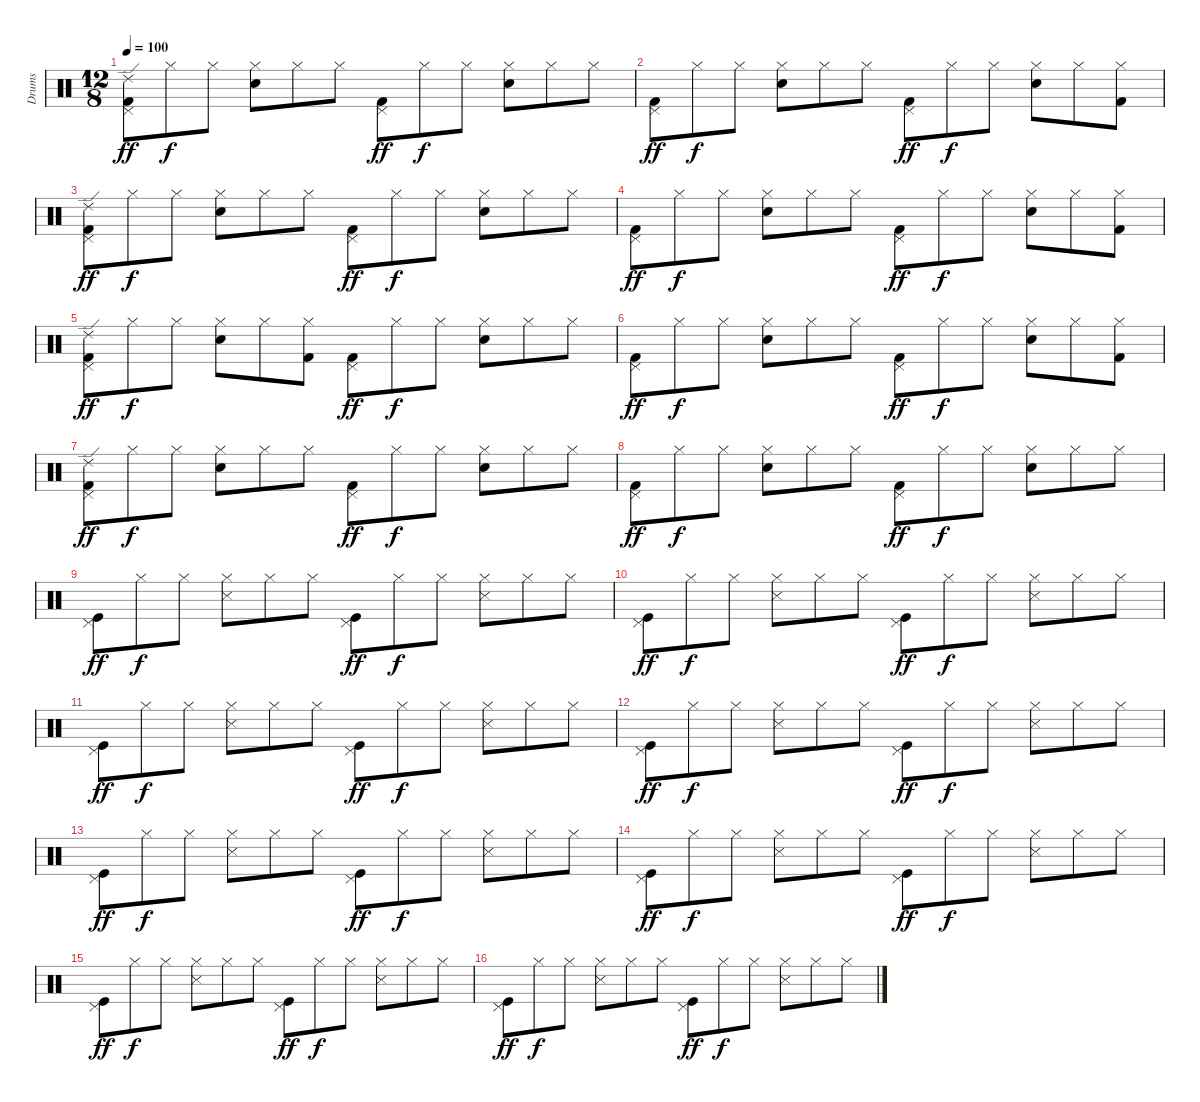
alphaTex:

\track ("Drums" "Drums") {instrument percussion}
\staff {score}
\articulation defaults
\ts (12 8)
\tempo 100
\clef neutral
\ks c
("Pedal Hi-Hat (hit)" "Ride (edge) 2" "Kick (hit) 2").8{dy ff} "Hi-Hat (closed)".8{dy f} "Hi-Hat (closed)".8 ("Hi-Hat (closed)" "Snare (hit) 2").8 "Hi-Hat (closed)".8 "Hi-Hat (closed)".8 ("Pedal Hi-Hat (hit)" "Kick (hit) 2").8{dy ff} "Hi-Hat (closed)".8{dy f} "Hi-Hat (closed)".8 ("Hi-Hat (closed)" "Snare (hit) 2").8 "Hi-Hat (closed)".8 "Hi-Hat (closed)".8 |
("Pedal Hi-Hat (hit)" "Kick (hit) 2").8{dy ff} "Hi-Hat (closed)".8{dy f} "Hi-Hat (closed)".8 ("Hi-Hat (closed)" "Snare (hit) 2").8 "Hi-Hat (closed)".8 "Hi-Hat (closed)".8 ("Pedal Hi-Hat (hit)" "Kick (hit) 2").8{dy ff} "Hi-Hat (closed)".8{dy f} "Hi-Hat (closed)".8 ("Hi-Hat (closed)" "Snare (hit) 2").8 "Hi-Hat (closed)".8 ("Hi-Hat (closed)" "Kick (hit) 2").8 |
("Pedal Hi-Hat (hit)" "Ride (edge) 2" "Kick (hit) 2").8{dy ff} "Hi-Hat (closed)".8{dy f} "Hi-Hat (closed)".8 ("Hi-Hat (closed)" "Snare (hit) 2").8 "Hi-Hat (closed)".8 "Hi-Hat (closed)".8 ("Pedal Hi-Hat (hit)" "Kick (hit) 2").8{dy ff} "Hi-Hat (closed)".8{dy f} "Hi-Hat (closed)".8 ("Hi-Hat (closed)" "Snare (hit) 2").8 "Hi-Hat (closed)".8 "Hi-Hat (closed)".8 |
("Pedal Hi-Hat (hit)" "Kick (hit) 2").8{dy ff} "Hi-Hat (closed)".8{dy f} "Hi-Hat (closed)".8 ("Hi-Hat (closed)" "Snare (hit) 2").8 "Hi-Hat (closed)".8 "Hi-Hat (closed)".8 ("Pedal Hi-Hat (hit)" "Kick (hit) 2").8{dy ff} "Hi-Hat (closed)".8{dy f} "Hi-Hat (closed)".8 ("Hi-Hat (closed)" "Snare (hit) 2").8 "Hi-Hat (closed)".8 ("Hi-Hat (closed)" "Kick (hit) 2").8 |
("Pedal Hi-Hat (hit)" "Ride (edge) 2" "Kick (hit) 2").8{dy ff} "Hi-Hat (closed)".8{dy f} "Hi-Hat (closed)".8 ("Hi-Hat (closed)" "Snare (hit) 2").8 "Hi-Hat (closed)".8 ("Hi-Hat (closed)" "Kick (hit) 2").8 ("Pedal Hi-Hat (hit)" "Kick (hit) 2").8{dy ff} "Hi-Hat (closed)".8{dy f} "Hi-Hat (closed)".8 ("Hi-Hat (closed)" "Snare (hit) 2").8 "Hi-Hat (closed)".8 "Hi-Hat (closed)".8 |
("Pedal Hi-Hat (hit)" "Kick (hit) 2").8{dy ff} "Hi-Hat (closed)".8{dy f} "Hi-Hat (closed)".8 ("Hi-Hat (closed)" "Snare (hit) 2").8 "Hi-Hat (closed)".8 "Hi-Hat (closed)".8 ("Pedal Hi-Hat (hit)" "Kick (hit) 2").8{dy ff} "Hi-Hat (closed)".8{dy f} "Hi-Hat (closed)".8 ("Hi-Hat (closed)" "Snare (hit) 2").8 "Hi-Hat (closed)".8 ("Hi-Hat (closed)" "Kick (hit) 2").8 |
("Pedal Hi-Hat (hit)" "Ride (edge) 2" "Kick (hit) 2").8{dy ff} "Hi-Hat (closed)".8{dy f} "Hi-Hat (closed)".8 ("Hi-Hat (closed)" "Snare (hit) 2").8 "Hi-Hat (closed)".8 "Hi-Hat (closed)".8 ("Pedal Hi-Hat (hit)" "Kick (hit) 2").8{dy ff} "Hi-Hat (closed)".8{dy f} "Hi-Hat (closed)".8 ("Hi-Hat (closed)" "Snare (hit) 2").8 "Hi-Hat (closed)".8 "Hi-Hat (closed)".8 |
("Pedal Hi-Hat (hit)" "Kick (hit) 2").8{dy ff} "Hi-Hat (closed)".8{dy f} "Hi-Hat (closed)".8 ("Hi-Hat (closed)" "Snare (hit) 2").8 "Hi-Hat (closed)".8 "Hi-Hat (closed)".8 ("Pedal Hi-Hat (hit)" "Kick (hit) 2").8{dy ff} "Hi-Hat (closed)".8{dy f} "Hi-Hat (closed)".8 ("Hi-Hat (closed)" "Snare (hit) 2").8 "Hi-Hat (closed)".8 "Hi-Hat (closed)".8 |
("Pedal Hi-Hat (hit)" "Kick (hit)").8{dy ff} "Hi-Hat (closed)".8{dy f} "Hi-Hat (closed)".8 ("Hi-Hat (closed)" "Snare (side stick) 3").8 "Hi-Hat (closed)".8 "Hi-Hat (closed)".8 ("Pedal Hi-Hat (hit)" "Kick (hit)").8{dy ff} "Hi-Hat (closed)".8{dy f} "Hi-Hat (closed)".8 ("Hi-Hat (closed)" "Snare (side stick) 3").8 "Hi-Hat (closed)".8 "Hi-Hat (closed)".8 |
("Pedal Hi-Hat (hit)" "Kick (hit)").8{dy ff} "Hi-Hat (closed)".8{dy f} "Hi-Hat (closed)".8 ("Hi-Hat (closed)" "Snare (side stick) 3").8 "Hi-Hat (closed)".8 "Hi-Hat (closed)".8 ("Pedal Hi-Hat (hit)" "Kick (hit)").8{dy ff} "Hi-Hat (closed)".8{dy f} "Hi-Hat (closed)".8 ("Hi-Hat (closed)" "Snare (side stick) 3").8 "Hi-Hat (closed)".8 "Hi-Hat (closed)".8 |
("Pedal Hi-Hat (hit)" "Kick (hit)").8{dy ff} "Hi-Hat (closed)".8{dy f} "Hi-Hat (closed)".8 ("Hi-Hat (closed)" "Snare (side stick) 3").8 "Hi-Hat (closed)".8 "Hi-Hat (closed)".8 ("Pedal Hi-Hat (hit)" "Kick (hit)").8{dy ff} "Hi-Hat (closed)".8{dy f} "Hi-Hat (closed)".8 ("Hi-Hat (closed)" "Snare (side stick) 3").8 "Hi-Hat (closed)".8 "Hi-Hat (closed)".8 |
("Pedal Hi-Hat (hit)" "Kick (hit)").8{dy ff} "Hi-Hat (closed)".8{dy f} "Hi-Hat (closed)".8 ("Hi-Hat (closed)" "Snare (side stick) 3").8 "Hi-Hat (closed)".8 "Hi-Hat (closed)".8 ("Pedal Hi-Hat (hit)" "Kick (hit)").8{dy ff} "Hi-Hat (closed)".8{dy f} "Hi-Hat (closed)".8 ("Hi-Hat (closed)" "Snare (side stick) 3").8 "Hi-Hat (closed)".8 "Hi-Hat (closed)".8 |
("Pedal Hi-Hat (hit)" "Kick (hit)").8{dy ff} "Hi-Hat (closed)".8{dy f} "Hi-Hat (closed)".8 ("Hi-Hat (closed)" "Snare (side stick) 3").8 "Hi-Hat (closed)".8 "Hi-Hat (closed)".8 ("Pedal Hi-Hat (hit)" "Kick (hit)").8{dy ff} "Hi-Hat (closed)".8{dy f} "Hi-Hat (closed)".8 ("Hi-Hat (closed)" "Snare (side stick) 3").8 "Hi-Hat (closed)".8 "Hi-Hat (closed)".8 |
("Pedal Hi-Hat (hit)" "Kick (hit)").8{dy ff} "Hi-Hat (closed)".8{dy f} "Hi-Hat (closed)".8 ("Hi-Hat (closed)" "Snare (side stick) 3").8 "Hi-Hat (closed)".8 "Hi-Hat (closed)".8 ("Pedal Hi-Hat (hit)" "Kick (hit)").8{dy ff} "Hi-Hat (closed)".8{dy f} "Hi-Hat (closed)".8 ("Hi-Hat (closed)" "Snare (side stick) 3").8 "Hi-Hat (closed)".8 "Hi-Hat (closed)".8 |
("Pedal Hi-Hat (hit)" "Kick (hit)").8{dy ff} "Hi-Hat (closed)".8{dy f} "Hi-Hat (closed)".8 ("Hi-Hat (closed)" "Snare (side stick) 3").8 "Hi-Hat (closed)".8 "Hi-Hat (closed)".8 ("Pedal Hi-Hat (hit)" "Kick (hit)").8{dy ff} "Hi-Hat (closed)".8{dy f} "Hi-Hat (closed)".8 ("Hi-Hat (closed)" "Snare (side stick) 3").8 "Hi-Hat (closed)".8 "Hi-Hat (closed)".8 |
("Pedal Hi-Hat (hit)" "Kick (hit)").8{dy ff} "Hi-Hat (closed)".8{dy f} "Hi-Hat (closed)".8 ("Hi-Hat (closed)" "Snare (side stick) 3").8 "Hi-Hat (closed)".8 "Hi-Hat (closed)".8 ("Pedal Hi-Hat (hit)" "Kick (hit)").8{dy ff} "Hi-Hat (closed)".8{dy f} "Hi-Hat (closed)".8 ("Hi-Hat (closed)" "Snare (side stick) 3").8 "Hi-Hat (closed)".8 "Hi-Hat (closed)".8
